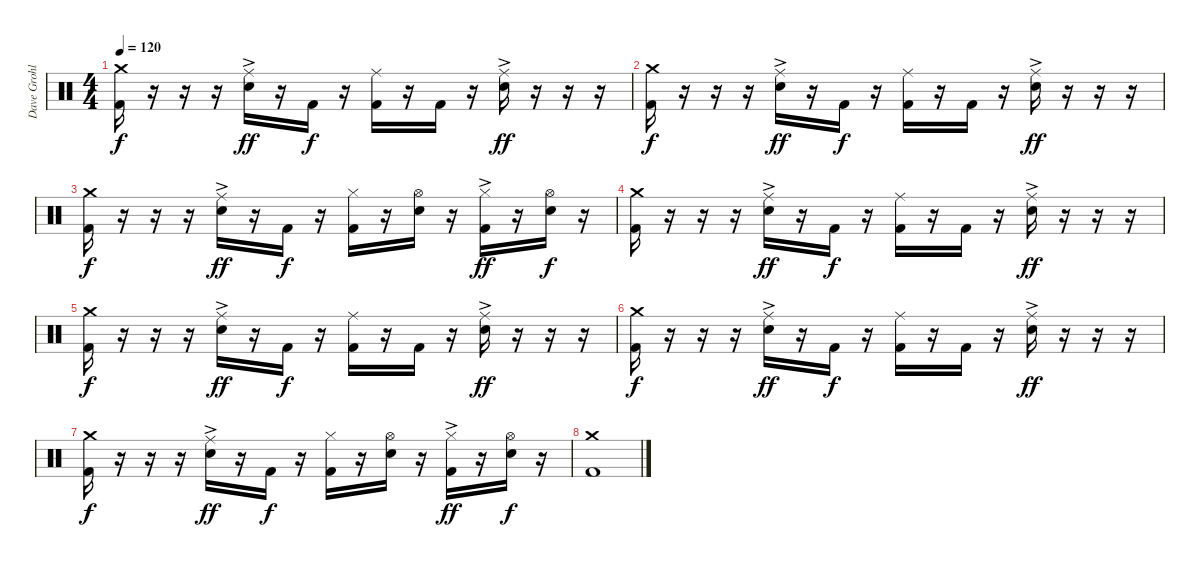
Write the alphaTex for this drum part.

\track ("Dave Grohl" "Dave Grohl") {instrument percussion}
\staff {score}
\articulation defaults
\ts (4 4)
\tempo 120
\clef neutral
\ks c
("Crash medium (hit)" "Kick (hit) 2").16{dy f} r.16 r.16 r.16 ("Ride (middle)"{ac} "Electric Snare (hit)").16{dy ff} r.16 "Kick (hit) 2".16{dy f} r.16 ("Ride (middle)" "Kick (hit) 2").16 r.16 "Kick (hit) 2".16 r.16 ("Ride (middle)"{ac} "Electric Snare (hit)").16{dy ff} r.16 r.16 r.16 |
("Crash medium (hit)" "Kick (hit) 2").16{dy f} r.16 r.16 r.16 ("Ride (middle)"{ac} "Electric Snare (hit)").16{dy ff} r.16 "Kick (hit) 2".16{dy f} r.16 ("Ride (middle)" "Kick (hit) 2").16 r.16 "Kick (hit) 2".16 r.16 ("Ride (middle)"{ac} "Electric Snare (hit)").16{dy ff} r.16 r.16 r.16 |
("Crash medium (hit)" "Kick (hit) 2").16{dy f} r.16 r.16 r.16 ("Ride (middle)"{ac} "Electric Snare (hit)").16{dy ff} r.16 "Kick (hit) 2".16{dy f} r.16 ("Hi-Hat (closed)" "Kick (hit) 2").16 r.16 ("Hi-Hat (open)" "Electric Snare (hit)").16 r.16 ("Hi-Hat (closed)"{ac} "Kick (hit) 2").16{dy ff} r.16 ("Hi-Hat (open)" "Electric Snare (hit)").16{dy f} r.16 |
("Crash medium (hit)" "Kick (hit) 2").16 r.16 r.16 r.16 ("Ride (middle)"{ac} "Electric Snare (hit)").16{dy ff} r.16 "Kick (hit) 2".16{dy f} r.16 ("Ride (middle)" "Kick (hit) 2").16 r.16 "Kick (hit) 2".16 r.16 ("Ride (middle)"{ac} "Electric Snare (hit)").16{dy ff} r.16 r.16 r.16 |
("Crash medium (hit)" "Kick (hit) 2").16{dy f} r.16 r.16 r.16 ("Ride (middle)"{ac} "Electric Snare (hit)").16{dy ff} r.16 "Kick (hit) 2".16{dy f} r.16 ("Ride (middle)" "Kick (hit) 2").16 r.16 "Kick (hit) 2".16 r.16 ("Ride (middle)"{ac} "Electric Snare (hit)").16{dy ff} r.16 r.16 r.16 |
("Crash medium (hit)" "Kick (hit) 2").16{dy f} r.16 r.16 r.16 ("Ride (middle)"{ac} "Electric Snare (hit)").16{dy ff} r.16 "Kick (hit) 2".16{dy f} r.16 ("Ride (middle)" "Kick (hit) 2").16 r.16 "Kick (hit) 2".16 r.16 ("Ride (middle)"{ac} "Electric Snare (hit)").16{dy ff} r.16 r.16 r.16 |
("Crash medium (hit)" "Kick (hit) 2").16{dy f} r.16 r.16 r.16 ("Ride (middle)"{ac} "Electric Snare (hit)").16{dy ff} r.16 "Kick (hit) 2".16{dy f} r.16 ("Hi-Hat (closed)" "Kick (hit) 2").16 r.16 ("Hi-Hat (open)" "Electric Snare (hit)").16 r.16 ("Hi-Hat (closed)"{ac} "Kick (hit) 2").16{dy ff} r.16 ("Hi-Hat (open)" "Electric Snare (hit)").16{dy f} r.16 |
("Crash medium (hit)" "Kick (hit) 2").1
